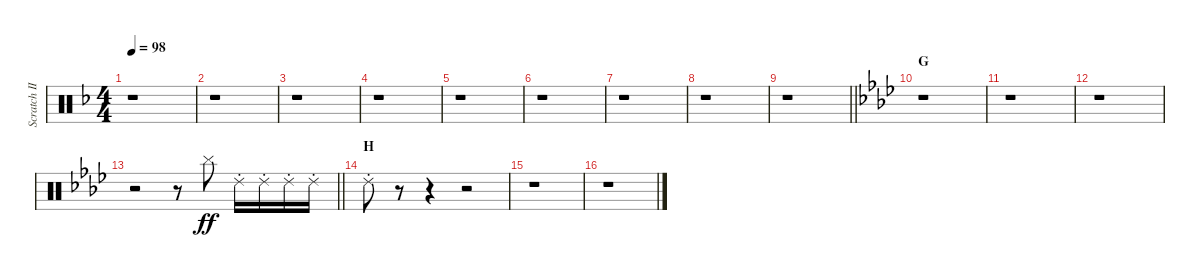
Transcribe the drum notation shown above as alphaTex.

\track ("Scratch II" "Scratch II") {instrument percussion}
\staff {score}
\articulation defaults
\ts (4 4)
\tempo 98
\clef neutral
\ks f
r.1{dy ff} |
r.1 |
r.1 |
r.1 |
r.1 |
r.1 |
r.1 |
r.1 |
\barLineRight lightlight
r.1 |
\section ("" "G")
\ks ab
r.1 |
r.1 |
r.1 |
\barLineRight lightlight
r.2 r.8 "Cymbal (hit)".8 "Ride (choke) 2".16 "Ride (choke) 2".16 "Ride (choke) 2".16 "Ride (choke) 2".16 |
\section ("" "H")
"Ride (choke) 2".8 r.8 r.4 r.2 |
r.1 |
r.1
